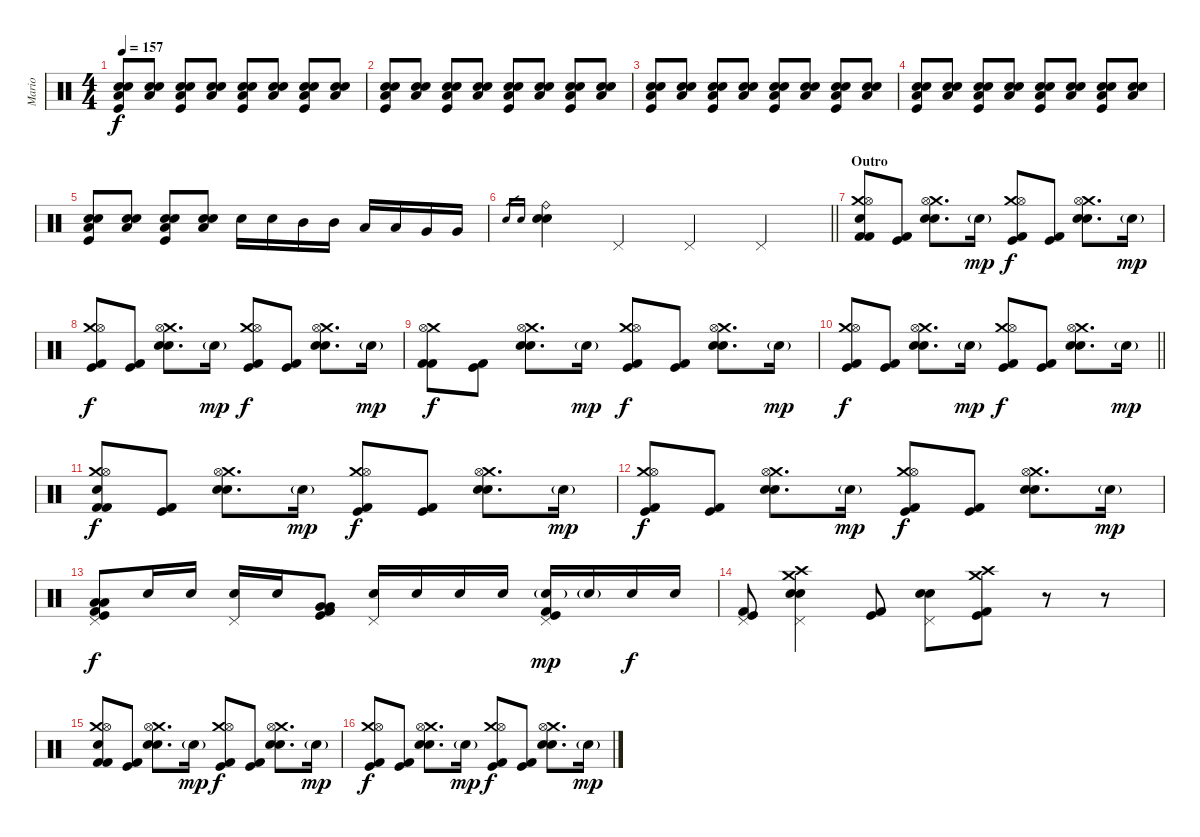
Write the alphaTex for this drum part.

\track ("Mario" "Mario") {instrument percussion}
\staff {score}
\articulation defaults
\ts (4 4)
\tempo 157
\clef neutral
\ks c
("Snare (hit) 2" "Electric Snare (hit)" "Low Floor Tom (hit)" "Kick (hit)").8{dy f volume 9} ("Snare (hit) 2" "Electric Snare (hit)" "Low Floor Tom (hit)").8 ("Snare (hit) 2" "Electric Snare (hit)" "Low Floor Tom (hit)" "Kick (hit)").8 ("Snare (hit) 2" "Electric Snare (hit)" "Low Floor Tom (hit)").8 ("Snare (hit) 2" "Electric Snare (hit)" "Low Floor Tom (hit)" "Kick (hit)").8 ("Snare (hit) 2" "Electric Snare (hit)" "Low Floor Tom (hit)").8 ("Snare (hit) 2" "Electric Snare (hit)" "Low Floor Tom (hit)" "Kick (hit)").8 ("Snare (hit) 2" "Electric Snare (hit)" "Low Floor Tom (hit)").8 |
("Snare (hit) 2" "Electric Snare (hit)" "Low Floor Tom (hit)" "Kick (hit)").8{volume 11} ("Snare (hit) 2" "Electric Snare (hit)" "Low Floor Tom (hit)").8 ("Snare (hit) 2" "Electric Snare (hit)" "Low Floor Tom (hit)" "Kick (hit)").8 ("Snare (hit) 2" "Electric Snare (hit)" "Low Floor Tom (hit)").8 ("Snare (hit) 2" "Electric Snare (hit)" "Low Floor Tom (hit)" "Kick (hit)").8 ("Snare (hit) 2" "Electric Snare (hit)" "Low Floor Tom (hit)").8 ("Snare (hit) 2" "Electric Snare (hit)" "Low Floor Tom (hit)" "Kick (hit)").8 ("Snare (hit) 2" "Electric Snare (hit)" "Low Floor Tom (hit)").8 |
("Snare (hit) 2" "Electric Snare (hit)" "Low Floor Tom (hit)" "Kick (hit)").8{volume 12} ("Snare (hit) 2" "Electric Snare (hit)" "Low Floor Tom (hit)").8 ("Snare (hit) 2" "Electric Snare (hit)" "Low Floor Tom (hit)" "Kick (hit)").8 ("Snare (hit) 2" "Electric Snare (hit)" "Low Floor Tom (hit)").8 ("Snare (hit) 2" "Electric Snare (hit)" "Low Floor Tom (hit)" "Kick (hit)").8 ("Snare (hit) 2" "Electric Snare (hit)" "Low Floor Tom (hit)").8 ("Snare (hit) 2" "Electric Snare (hit)" "Low Floor Tom (hit)" "Kick (hit)").8 ("Snare (hit) 2" "Electric Snare (hit)" "Low Floor Tom (hit)").8 |
("Snare (hit) 2" "Electric Snare (hit)" "Low Floor Tom (hit)" "Kick (hit)").8{volume 13} ("Snare (hit) 2" "Electric Snare (hit)" "Low Floor Tom (hit)").8 ("Snare (hit) 2" "Electric Snare (hit)" "Low Floor Tom (hit)" "Kick (hit)").8 ("Snare (hit) 2" "Electric Snare (hit)" "Low Floor Tom (hit)").8 ("Snare (hit) 2" "Electric Snare (hit)" "Low Floor Tom (hit)" "Kick (hit)").8 ("Snare (hit) 2" "Electric Snare (hit)" "Low Floor Tom (hit)").8 ("Snare (hit) 2" "Electric Snare (hit)" "Low Floor Tom (hit)" "Kick (hit)").8 ("Snare (hit) 2" "Electric Snare (hit)" "Low Floor Tom (hit)").8 |
("Snare (hit) 2" "Electric Snare (hit)" "Low Floor Tom (hit)" "Kick (hit)").8{volume 14} ("Snare (hit) 2" "Electric Snare (hit)" "Low Floor Tom (hit)").8 ("Snare (hit) 2" "Electric Snare (hit)" "Low Floor Tom (hit)" "Kick (hit)").8 ("Snare (hit) 2" "Electric Snare (hit)" "Low Floor Tom (hit)").8 "Snare (hit) 2".16 "Snare (hit) 2".16 "Mid Tom (hit)".16 "Mid Tom (hit)".16 "Low Tom (hit)".16 "Low Tom (hit)".16 "Very Low Tom (hit)".16 "Very Low Tom (hit)".16 |
\barLineRight lightlight "Electric Snare (hit)".16{gr} "Snare (hit) 2".16{gr}
("Ride (bell)" "Electric Snare (hit)" "Snare (hit) 2").4 "Pedal Hi-Hat (hit)".4 "Pedal Hi-Hat (hit)".4 "Pedal Hi-Hat (hit)".4 |
\section ("" "Outro")
("Crash medium (hit)" "Hi-Hat (open)" "Snare (hit) 2" "Kick (hit) 2" "Kick (hit) 2").8 ("Kick (hit)" "Kick (hit) 2").8 ("Crash medium (hit)" "Hi-Hat (open)" "Electric Snare (hit)" "Snare (hit) 2").8{d} "Snare (hit) 2"{g}.16{dy mp} ("Crash medium (hit)" "Hi-Hat (open)" "Kick (hit)" "Kick (hit) 2").8{dy f} ("Kick (hit)" "Kick (hit) 2").8 ("Crash medium (hit)" "Hi-Hat (open)" "Electric Snare (hit)" "Snare (hit) 2").8{d} "Snare (hit) 2"{g}.16{dy mp} |
("Crash medium (hit)" "Hi-Hat (open)" "Kick (hit)" "Kick (hit) 2").8{dy f} ("Kick (hit)" "Kick (hit) 2").8 ("Crash medium (hit)" "Hi-Hat (open)" "Electric Snare (hit)" "Snare (hit) 2").8{d} "Snare (hit) 2"{g}.16{dy mp} ("Crash medium (hit)" "Hi-Hat (open)" "Kick (hit)" "Kick (hit) 2").8{dy f} ("Kick (hit)" "Kick (hit) 2").8 ("Crash medium (hit)" "Hi-Hat (open)" "Electric Snare (hit)" "Snare (hit) 2").8{d} "Snare (hit) 2"{g}.16{dy mp} |
("Crash medium (hit)" "Hi-Hat (open)" "Kick (hit) 2" "Kick (hit) 2").8{dy f} ("Kick (hit)" "Kick (hit) 2").8 ("Crash medium (hit)" "Hi-Hat (open)" "Electric Snare (hit)" "Snare (hit) 2").8{d} "Snare (hit) 2"{g}.16{dy mp} ("Crash medium (hit)" "Hi-Hat (open)" "Kick (hit)" "Kick (hit) 2").8{dy f} ("Kick (hit)" "Kick (hit) 2").8 ("Crash medium (hit)" "Hi-Hat (open)" "Electric Snare (hit)" "Snare (hit) 2").8{d} "Snare (hit) 2"{g}.16{dy mp} |
\barLineRight lightlight
("Crash medium (hit)" "Hi-Hat (open)" "Kick (hit)" "Kick (hit) 2").8{dy f} ("Kick (hit)" "Kick (hit) 2").8 ("Crash medium (hit)" "Hi-Hat (open)" "Electric Snare (hit)" "Snare (hit) 2").8{d} "Snare (hit) 2"{g}.16{dy mp} ("Crash medium (hit)" "Hi-Hat (open)" "Kick (hit)" "Kick (hit) 2").8{dy f} ("Kick (hit)" "Kick (hit) 2").8 ("Crash medium (hit)" "Hi-Hat (open)" "Electric Snare (hit)" "Snare (hit) 2").8{d} "Snare (hit) 2"{g}.16{dy mp} |
("Crash medium (hit)" "Hi-Hat (open)" "Snare (hit) 2" "Kick (hit) 2" "Kick (hit) 2").8{dy f} ("Kick (hit)" "Kick (hit) 2").8 ("Crash medium (hit)" "Hi-Hat (open)" "Electric Snare (hit)" "Snare (hit) 2").8{d} "Snare (hit) 2"{g}.16{dy mp} ("Crash medium (hit)" "Hi-Hat (open)" "Kick (hit)" "Kick (hit) 2").8{dy f} ("Kick (hit)" "Kick (hit) 2").8 ("Crash medium (hit)" "Hi-Hat (open)" "Electric Snare (hit)" "Snare (hit) 2").8{d} "Snare (hit) 2"{g}.16{dy mp} |
("Crash medium (hit)" "Hi-Hat (open)" "Kick (hit)" "Kick (hit) 2").8{dy f} ("Kick (hit)" "Kick (hit) 2").8 ("Crash medium (hit)" "Hi-Hat (open)" "Electric Snare (hit)" "Snare (hit) 2").8{d} "Snare (hit) 2"{g}.16{dy mp} ("Crash medium (hit)" "Hi-Hat (open)" "Kick (hit)" "Kick (hit) 2").8{dy f} ("Kick (hit)" "Kick (hit) 2").8 ("Crash medium (hit)" "Hi-Hat (open)" "Electric Snare (hit)" "Snare (hit) 2").8{d} "Snare (hit) 2"{g}.16{dy mp} |
("Pedal Hi-Hat (hit)" "Low Tom (hit)" "Low Tom (hit)" "Kick (hit)" "Kick (hit) 2").8{dy f} "Snare (hit) 2".16 "Snare (hit) 2".16 ("Pedal Hi-Hat (hit)" "Snare (hit) 2").16 "Snare (hit) 2".16 ("Very Low Tom (hit)" "Very Low Tom (hit)" "Kick (hit)" "Kick (hit) 2").8 ("Pedal Hi-Hat (hit)" "Snare (hit) 2").16 "Snare (hit) 2".16 "Snare (hit) 2".16 "Snare (hit) 2".16 ("Pedal Hi-Hat (hit)" "Snare (hit) 2"{g} "Kick (hit)" "Kick (hit) 2").16{dy mp} "Snare (hit) 2"{g}.16 "Snare (hit) 2".16{dy f} "Snare (hit) 2".16 |
("Pedal Hi-Hat (hit)" "Kick (hit)" "Kick (hit) 2").8 ("Crash medium (hit)" "Crash high (hit)" "Electric Snare (hit)" "Snare (hit) 2" "Pedal Hi-Hat (hit)").4 ("Kick (hit)" "Kick (hit) 2").8 ("Pedal Hi-Hat (hit)" "Electric Snare (hit)" "Snare (hit) 2").8 ("Crash medium (hit)" "Crash high (hit)" "Kick (hit)" "Kick (hit) 2").8 r.8 r.8 |
("Crash medium (hit)" "Hi-Hat (open)" "Snare (hit) 2" "Kick (hit) 2" "Kick (hit) 2").8 ("Kick (hit)" "Kick (hit) 2").8 ("Crash medium (hit)" "Hi-Hat (open)" "Electric Snare (hit)" "Snare (hit) 2").8{d} "Snare (hit) 2"{g}.16{dy mp} ("Crash medium (hit)" "Hi-Hat (open)" "Kick (hit)" "Kick (hit) 2").8{dy f} ("Kick (hit)" "Kick (hit) 2").8 ("Crash medium (hit)" "Hi-Hat (open)" "Electric Snare (hit)" "Snare (hit) 2").8{d} "Snare (hit) 2"{g}.16{dy mp} |
("Crash medium (hit)" "Hi-Hat (open)" "Kick (hit)" "Kick (hit) 2").8{dy f} ("Kick (hit)" "Kick (hit) 2").8 ("Crash medium (hit)" "Hi-Hat (open)" "Electric Snare (hit)" "Snare (hit) 2").8{d} "Snare (hit) 2"{g}.16{dy mp} ("Crash medium (hit)" "Hi-Hat (open)" "Kick (hit)" "Kick (hit) 2").8{dy f} ("Kick (hit)" "Kick (hit) 2").8 ("Crash medium (hit)" "Hi-Hat (open)" "Electric Snare (hit)" "Snare (hit) 2").8{d} "Snare (hit) 2"{g}.16{dy mp}
